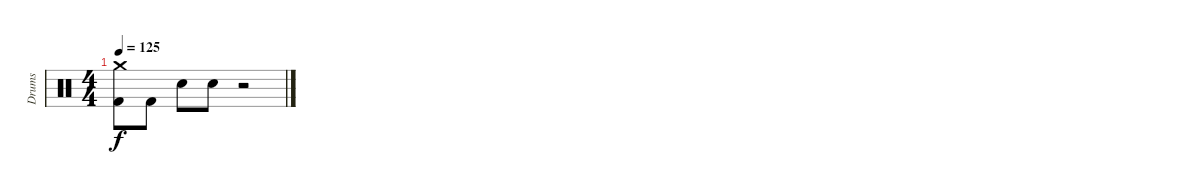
\track ("Drums" "Drums") {instrument percussion}
\staff {score}
\articulation defaults
\ts (4 4)
\tempo 125
\clef neutral
\ks c
("Crash medium (hit)" "Kick (hit) 2").8{dy f} "Kick (hit) 2".8 "Electric Snare (hit)".8 "Electric Snare (hit)".8 r.2
